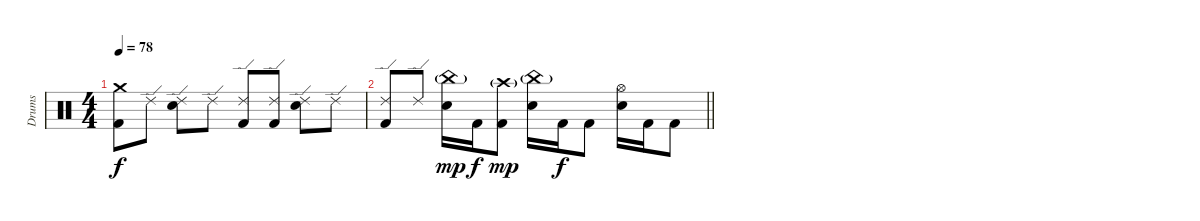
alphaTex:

\track ("Drums" "Drums") {instrument percussion}
\staff {score}
\articulation defaults
\ts (4 4)
\tempo 78
\clef neutral
\ks c
("Crash medium (hit)" "Kick (hit) 2").8{dy f} "Ride (edge) 2".8 ("Ride (edge) 2" "Electric Snare (hit)").8 "Ride (edge) 2".8 ("Ride (edge) 2" "Kick (hit) 2").8 ("Ride (edge) 2" "Kick (hit) 2").8 ("Ride (edge) 2" "Electric Snare (hit)").8 "Ride (edge) 2".8 |
\barLineRight lightlight
("Ride (edge) 2" "Kick (hit) 2").8 "Ride (edge) 2".8 ("China (hit)"{g} "Electric Snare (hit)").16{dy mp} "Kick (hit) 2".16{dy f} ("Crash high (hit)"{g} "Kick (hit) 2").8{dy mp} ("China (hit)"{g} "Electric Snare (hit)").16 "Kick (hit) 2".16{dy f} "Kick (hit) 2".8 ("Hi-Hat (open)" "Electric Snare (hit)").16 "Kick (hit) 2".16 "Kick (hit) 2".8
